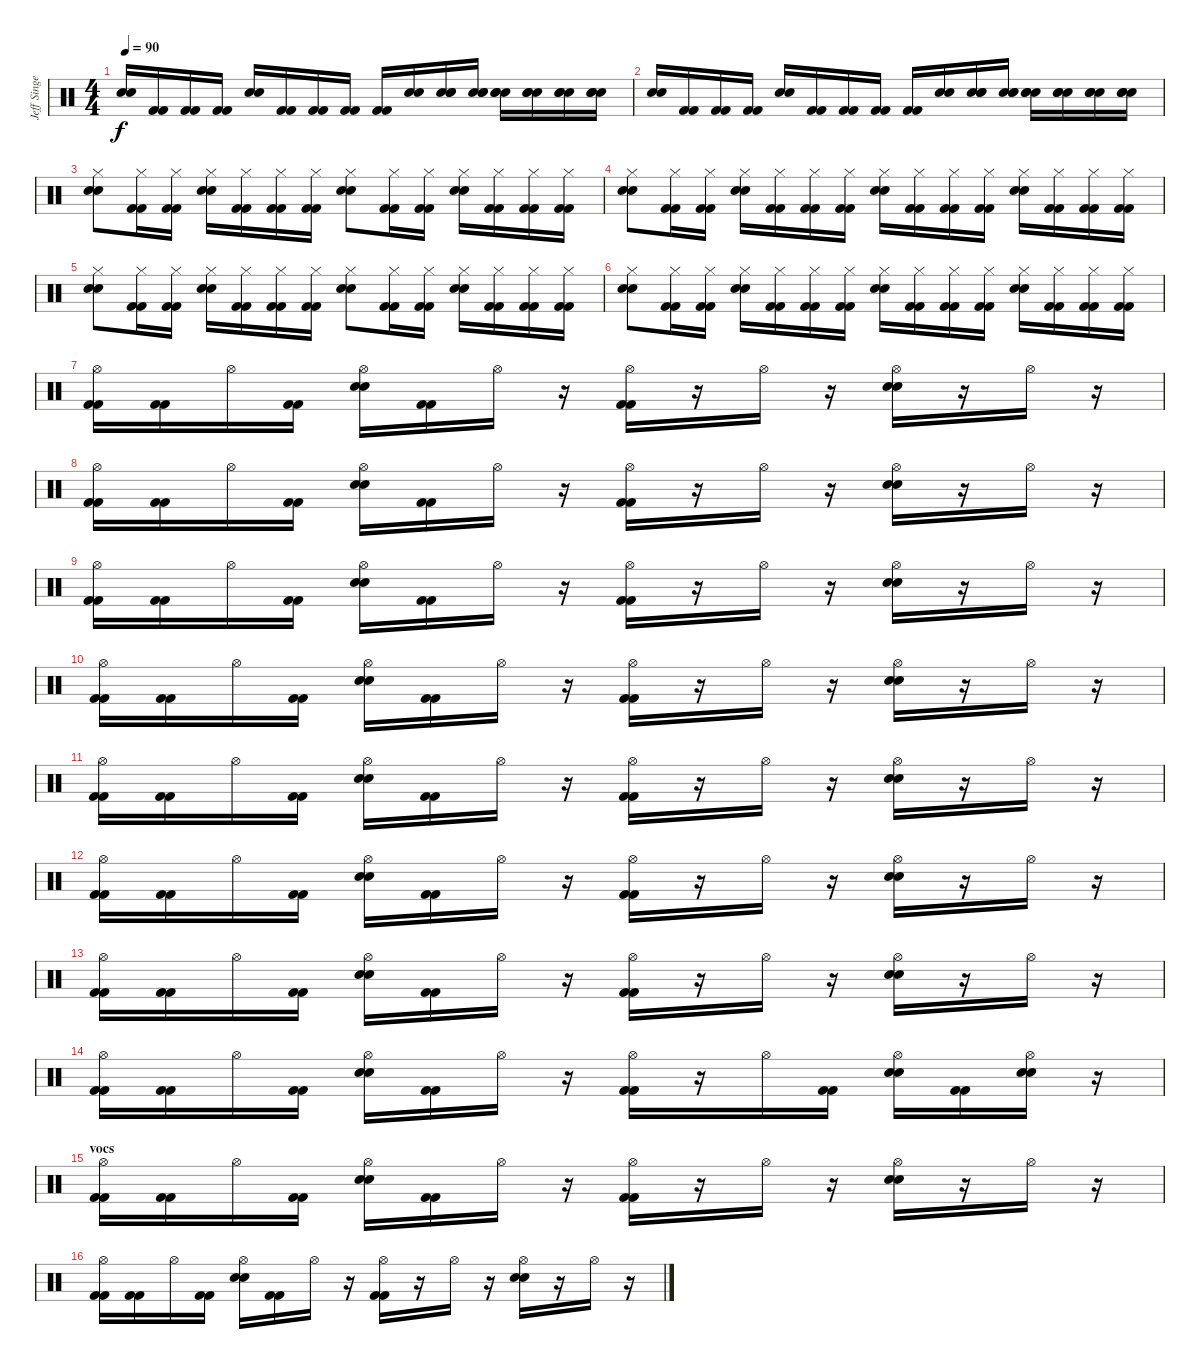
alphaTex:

\track ("Jeff Singer" "Jeff Singe") {instrument percussion}
\staff {score}
\articulation defaults
\ts (4 4)
\tempo 90
\clef neutral
\ks c
("Snare (hit) 2" "Snare (hit) 2").16{dy f} ("Kick (hit) 2" "Kick (hit) 2").16 ("Kick (hit) 2" "Kick (hit) 2").16 ("Kick (hit) 2" "Kick (hit) 2").16 ("Snare (hit) 2" "Snare (hit) 2").16 ("Kick (hit) 2" "Kick (hit) 2").16 ("Kick (hit) 2" "Kick (hit) 2").16 ("Kick (hit) 2" "Kick (hit) 2").16 ("Kick (hit) 2" "Kick (hit) 2").16 ("Snare (hit) 2" "Snare (hit) 2").16 ("Snare (hit) 2" "Snare (hit) 2" "Snare (hit) 2").16 ("Snare (hit) 2" "Snare (hit) 2" "Snare (hit) 2").16 ("Snare (hit) 2" "Snare (hit) 2" "Snare (hit) 2").16 ("Snare (hit) 2" "Snare (hit) 2" "Snare (hit) 2").16 ("Snare (hit) 2" "Snare (hit) 2" "Snare (hit) 2").16 ("Snare (hit) 2" "Snare (hit) 2" "Snare (hit) 2").16 |
("Snare (hit) 2" "Snare (hit) 2").16 ("Kick (hit) 2" "Kick (hit) 2").16 ("Kick (hit) 2" "Kick (hit) 2").16 ("Kick (hit) 2" "Kick (hit) 2").16 ("Snare (hit) 2" "Snare (hit) 2").16 ("Kick (hit) 2" "Kick (hit) 2").16 ("Kick (hit) 2" "Kick (hit) 2").16 ("Kick (hit) 2" "Kick (hit) 2").16 ("Kick (hit) 2" "Kick (hit) 2").16 ("Snare (hit) 2" "Snare (hit) 2").16 ("Snare (hit) 2" "Snare (hit) 2" "Snare (hit) 2").16 ("Snare (hit) 2" "Snare (hit) 2" "Snare (hit) 2").16 ("Snare (hit) 2" "Snare (hit) 2" "Snare (hit) 2").16 ("Snare (hit) 2" "Snare (hit) 2" "Snare (hit) 2").16 ("Snare (hit) 2" "Snare (hit) 2" "Snare (hit) 2").16 ("Snare (hit) 2" "Snare (hit) 2" "Snare (hit) 2").16 |
("Hi-Hat (closed)" "Snare (hit) 2" "Snare (hit) 2").8 ("Hi-Hat (closed)" "Kick (hit) 2" "Kick (hit) 2").16 ("Hi-Hat (closed)" "Kick (hit) 2" "Kick (hit) 2").16 ("Hi-Hat (closed)" "Snare (hit) 2" "Snare (hit) 2").16 ("Hi-Hat (closed)" "Kick (hit) 2" "Kick (hit) 2").16 ("Hi-Hat (closed)" "Kick (hit) 2" "Kick (hit) 2").16 ("Hi-Hat (closed)" "Kick (hit) 2" "Kick (hit) 2").16 ("Hi-Hat (closed)" "Snare (hit) 2" "Snare (hit) 2").8 ("Hi-Hat (closed)" "Kick (hit) 2" "Kick (hit) 2").16 ("Hi-Hat (closed)" "Kick (hit) 2" "Kick (hit) 2").16 ("Hi-Hat (closed)" "Snare (hit) 2" "Snare (hit) 2").16 ("Hi-Hat (closed)" "Kick (hit) 2" "Kick (hit) 2").16 ("Hi-Hat (closed)" "Kick (hit) 2" "Kick (hit) 2").16 ("Hi-Hat (closed)" "Kick (hit) 2" "Kick (hit) 2").16 |
("Hi-Hat (closed)" "Snare (hit) 2" "Snare (hit) 2").8 ("Hi-Hat (closed)" "Kick (hit) 2" "Kick (hit) 2").16 ("Hi-Hat (closed)" "Kick (hit) 2" "Kick (hit) 2").16 ("Hi-Hat (closed)" "Snare (hit) 2" "Snare (hit) 2").16 ("Hi-Hat (closed)" "Kick (hit) 2" "Kick (hit) 2").16 ("Hi-Hat (closed)" "Kick (hit) 2" "Kick (hit) 2").16 ("Hi-Hat (closed)" "Kick (hit) 2" "Kick (hit) 2").16 ("Hi-Hat (closed)" "Snare (hit) 2" "Snare (hit) 2").16 ("Hi-Hat (closed)" "Kick (hit) 2" "Kick (hit) 2").16 ("Hi-Hat (closed)" "Kick (hit) 2" "Kick (hit) 2").16 ("Hi-Hat (closed)" "Kick (hit) 2" "Kick (hit) 2").16 ("Hi-Hat (closed)" "Snare (hit) 2" "Snare (hit) 2").16 ("Hi-Hat (closed)" "Kick (hit) 2" "Kick (hit) 2").16 ("Hi-Hat (closed)" "Kick (hit) 2" "Kick (hit) 2").16 ("Hi-Hat (closed)" "Kick (hit) 2" "Kick (hit) 2").16 |
("Hi-Hat (closed)" "Snare (hit) 2" "Snare (hit) 2").8 ("Hi-Hat (closed)" "Kick (hit) 2" "Kick (hit) 2").16 ("Hi-Hat (closed)" "Kick (hit) 2" "Kick (hit) 2").16 ("Hi-Hat (closed)" "Snare (hit) 2" "Snare (hit) 2").16 ("Hi-Hat (closed)" "Kick (hit) 2" "Kick (hit) 2").16 ("Hi-Hat (closed)" "Kick (hit) 2" "Kick (hit) 2").16 ("Hi-Hat (closed)" "Kick (hit) 2" "Kick (hit) 2").16 ("Hi-Hat (closed)" "Snare (hit) 2" "Snare (hit) 2").8 ("Hi-Hat (closed)" "Kick (hit) 2" "Kick (hit) 2").16 ("Hi-Hat (closed)" "Kick (hit) 2" "Kick (hit) 2").16 ("Hi-Hat (closed)" "Snare (hit) 2" "Snare (hit) 2").16 ("Hi-Hat (closed)" "Kick (hit) 2" "Kick (hit) 2").16 ("Hi-Hat (closed)" "Kick (hit) 2" "Kick (hit) 2").16 ("Hi-Hat (closed)" "Kick (hit) 2" "Kick (hit) 2").16 |
("Hi-Hat (closed)" "Snare (hit) 2" "Snare (hit) 2").8 ("Hi-Hat (closed)" "Kick (hit) 2" "Kick (hit) 2").16 ("Hi-Hat (closed)" "Kick (hit) 2" "Kick (hit) 2").16 ("Hi-Hat (closed)" "Snare (hit) 2" "Snare (hit) 2").16 ("Hi-Hat (closed)" "Kick (hit) 2" "Kick (hit) 2").16 ("Hi-Hat (closed)" "Kick (hit) 2" "Kick (hit) 2").16 ("Hi-Hat (closed)" "Kick (hit) 2" "Kick (hit) 2").16 ("Hi-Hat (closed)" "Snare (hit) 2" "Snare (hit) 2").16 ("Hi-Hat (closed)" "Kick (hit) 2" "Kick (hit) 2").16 ("Hi-Hat (closed)" "Kick (hit) 2" "Kick (hit) 2").16 ("Hi-Hat (closed)" "Kick (hit) 2" "Kick (hit) 2").16 ("Hi-Hat (closed)" "Snare (hit) 2" "Snare (hit) 2").16 ("Hi-Hat (closed)" "Kick (hit) 2" "Kick (hit) 2").16 ("Hi-Hat (closed)" "Kick (hit) 2" "Kick (hit) 2").16 ("Hi-Hat (closed)" "Kick (hit) 2" "Kick (hit) 2").16 |
("Hi-Hat (open)" "Kick (hit) 2" "Kick (hit) 2").16 ("Kick (hit) 2" "Kick (hit) 2").16 "Hi-Hat (open)".16 ("Kick (hit) 2" "Kick (hit) 2").16 ("Hi-Hat (open)" "Snare (hit) 2" "Snare (hit) 2").16 ("Kick (hit) 2" "Kick (hit) 2").16 "Hi-Hat (open)".16 r.16 ("Hi-Hat (open)" "Kick (hit) 2" "Kick (hit) 2").16 r.16 "Hi-Hat (open)".16 r.16 ("Hi-Hat (open)" "Snare (hit) 2" "Snare (hit) 2").16 r.16 "Hi-Hat (open)".16 r.16 |
("Hi-Hat (open)" "Kick (hit) 2" "Kick (hit) 2").16 ("Kick (hit) 2" "Kick (hit) 2").16 "Hi-Hat (open)".16 ("Kick (hit) 2" "Kick (hit) 2").16 ("Hi-Hat (open)" "Snare (hit) 2" "Snare (hit) 2").16 ("Kick (hit) 2" "Kick (hit) 2").16 "Hi-Hat (open)".16 r.16 ("Hi-Hat (open)" "Kick (hit) 2" "Kick (hit) 2").16 r.16 "Hi-Hat (open)".16 r.16 ("Hi-Hat (open)" "Snare (hit) 2" "Snare (hit) 2").16 r.16 "Hi-Hat (open)".16 r.16 |
("Hi-Hat (open)" "Kick (hit) 2" "Kick (hit) 2").16 ("Kick (hit) 2" "Kick (hit) 2").16 "Hi-Hat (open)".16 ("Kick (hit) 2" "Kick (hit) 2").16 ("Hi-Hat (open)" "Snare (hit) 2" "Snare (hit) 2").16 ("Kick (hit) 2" "Kick (hit) 2").16 "Hi-Hat (open)".16 r.16 ("Hi-Hat (open)" "Kick (hit) 2" "Kick (hit) 2").16 r.16 "Hi-Hat (open)".16 r.16 ("Hi-Hat (open)" "Snare (hit) 2" "Snare (hit) 2").16 r.16 "Hi-Hat (open)".16 r.16 |
("Hi-Hat (open)" "Kick (hit) 2" "Kick (hit) 2").16 ("Kick (hit) 2" "Kick (hit) 2").16 "Hi-Hat (open)".16 ("Kick (hit) 2" "Kick (hit) 2").16 ("Hi-Hat (open)" "Snare (hit) 2" "Snare (hit) 2").16 ("Kick (hit) 2" "Kick (hit) 2").16 "Hi-Hat (open)".16 r.16 ("Hi-Hat (open)" "Kick (hit) 2" "Kick (hit) 2").16 r.16 "Hi-Hat (open)".16 r.16 ("Hi-Hat (open)" "Snare (hit) 2" "Snare (hit) 2").16 r.16 "Hi-Hat (open)".16 r.16 |
("Hi-Hat (open)" "Kick (hit) 2" "Kick (hit) 2").16 ("Kick (hit) 2" "Kick (hit) 2").16 "Hi-Hat (open)".16 ("Kick (hit) 2" "Kick (hit) 2").16 ("Hi-Hat (open)" "Snare (hit) 2" "Snare (hit) 2").16 ("Kick (hit) 2" "Kick (hit) 2").16 "Hi-Hat (open)".16 r.16 ("Hi-Hat (open)" "Kick (hit) 2" "Kick (hit) 2").16 r.16 "Hi-Hat (open)".16 r.16 ("Hi-Hat (open)" "Snare (hit) 2" "Snare (hit) 2").16 r.16 "Hi-Hat (open)".16 r.16 |
("Hi-Hat (open)" "Kick (hit) 2" "Kick (hit) 2").16 ("Kick (hit) 2" "Kick (hit) 2").16 "Hi-Hat (open)".16 ("Kick (hit) 2" "Kick (hit) 2").16 ("Hi-Hat (open)" "Snare (hit) 2" "Snare (hit) 2").16 ("Kick (hit) 2" "Kick (hit) 2").16 "Hi-Hat (open)".16 r.16 ("Hi-Hat (open)" "Kick (hit) 2" "Kick (hit) 2").16 r.16 "Hi-Hat (open)".16 r.16 ("Hi-Hat (open)" "Snare (hit) 2" "Snare (hit) 2").16 r.16 "Hi-Hat (open)".16 r.16 |
("Hi-Hat (open)" "Kick (hit) 2" "Kick (hit) 2").16 ("Kick (hit) 2" "Kick (hit) 2").16 "Hi-Hat (open)".16 ("Kick (hit) 2" "Kick (hit) 2").16 ("Hi-Hat (open)" "Snare (hit) 2" "Snare (hit) 2").16 ("Kick (hit) 2" "Kick (hit) 2").16 "Hi-Hat (open)".16 r.16 ("Hi-Hat (open)" "Kick (hit) 2" "Kick (hit) 2").16 r.16 "Hi-Hat (open)".16 r.16 ("Hi-Hat (open)" "Snare (hit) 2" "Snare (hit) 2").16 r.16 "Hi-Hat (open)".16 r.16 |
("Hi-Hat (open)" "Kick (hit) 2" "Kick (hit) 2").16 ("Kick (hit) 2" "Kick (hit) 2").16 "Hi-Hat (open)".16 ("Kick (hit) 2" "Kick (hit) 2").16 ("Hi-Hat (open)" "Snare (hit) 2" "Snare (hit) 2").16 ("Kick (hit) 2" "Kick (hit) 2").16 "Hi-Hat (open)".16 r.16 ("Hi-Hat (open)" "Kick (hit) 2" "Kick (hit) 2").16 r.16 "Hi-Hat (open)".16 ("Kick (hit) 2" "Kick (hit) 2").16 ("Hi-Hat (open)" "Snare (hit) 2" "Snare (hit) 2").16 ("Kick (hit) 2" "Kick (hit) 2").16 ("Hi-Hat (open)" "Snare (hit) 2" "Snare (hit) 2").16 r.16 |
\section ("" "vocs")
("Hi-Hat (open)" "Kick (hit) 2" "Kick (hit) 2").16 ("Kick (hit) 2" "Kick (hit) 2").16 "Hi-Hat (open)".16 ("Kick (hit) 2" "Kick (hit) 2").16 ("Hi-Hat (open)" "Snare (hit) 2" "Snare (hit) 2").16 ("Kick (hit) 2" "Kick (hit) 2").16 "Hi-Hat (open)".16 r.16 ("Hi-Hat (open)" "Kick (hit) 2" "Kick (hit) 2").16 r.16 "Hi-Hat (open)".16 r.16 ("Hi-Hat (open)" "Snare (hit) 2" "Snare (hit) 2").16 r.16 "Hi-Hat (open)".16 r.16 |
("Hi-Hat (open)" "Kick (hit) 2" "Kick (hit) 2").16 ("Kick (hit) 2" "Kick (hit) 2").16 "Hi-Hat (open)".16 ("Kick (hit) 2" "Kick (hit) 2").16 ("Hi-Hat (open)" "Snare (hit) 2" "Snare (hit) 2").16 ("Kick (hit) 2" "Kick (hit) 2").16 "Hi-Hat (open)".16 r.16 ("Hi-Hat (open)" "Kick (hit) 2" "Kick (hit) 2").16 r.16 "Hi-Hat (open)".16 r.16 ("Hi-Hat (open)" "Snare (hit) 2" "Snare (hit) 2").16 r.16 "Hi-Hat (open)".16 r.16
